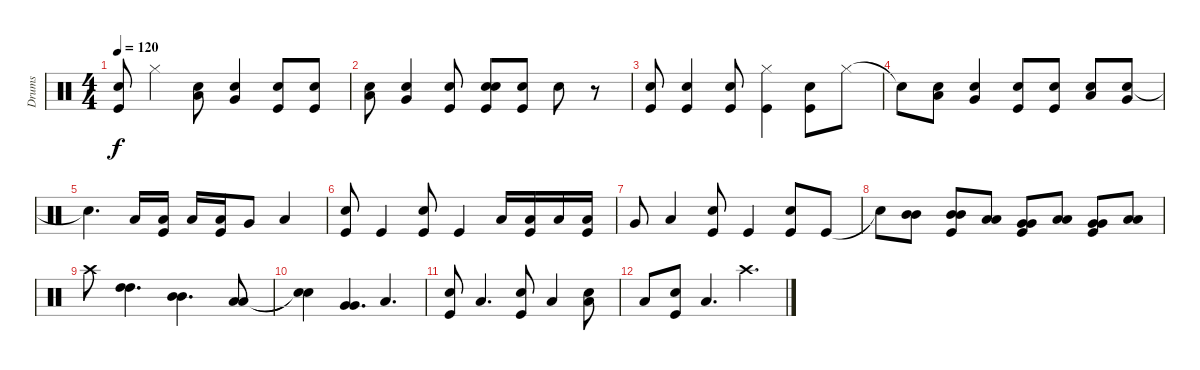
\track ("Drums" "Drums") {instrument percussion}
\staff {score}
\articulation defaults
\ts (4 4)
\tempo 120
\clef neutral
\ks c
("Snare (hit) 2" "Kick (hit)").8{dy f} "Hi-Hat (closed)".4 ("Snare (hit) 2" "Low Floor Tom (hit)").8 ("Snare (hit) 2" "Very Low Tom (hit)").4 ("Snare (hit) 2" "Kick (hit)").8 ("Snare (hit) 2" "Kick (hit)").8 |
("Snare (hit) 2" "Low Floor Tom (hit)").8 ("Snare (hit) 2" "Very Low Tom (hit)").4 ("Snare (hit) 2" "Kick (hit)").8 ("Snare (hit) 2" "Snare (hit) 2" "Kick (hit)").8 ("Snare (hit) 2" "Kick (hit)").8 "Snare (hit) 2".8 r.8 |
("Snare (hit) 2" "Kick (hit)").8 ("Snare (hit) 2" "Kick (hit)").4 ("Snare (hit) 2" "Kick (hit)").8 ("Hi-Hat (closed)" "Kick (hit)").4 ("Snare (hit) 2" "Kick (hit)").8 "Hi-Hat (closed)".8 |
"Snare (hit)"{t}.8 ("Snare (hit) 2" "Low Floor Tom (hit)").8 ("Snare (hit) 2" "Very Low Tom (hit)").4 ("Snare (hit) 2" "Kick (hit)").8 ("Snare (hit) 2" "Kick (hit)").8 ("Snare (hit) 2" "Low Floor Tom (hit)").8 ("Snare (hit) 2" "Very Low Tom (hit)").8 |
"Snare (hit)"{t}.4{d} "Low Tom (hit)".16 ("Low Tom (hit)" "Kick (hit)").16 "Low Tom (hit)".16 ("Low Tom (hit)" "Kick (hit)").16 "Very Low Tom (hit)".8 "Low Floor Tom (hit)".4 |
("Snare (hit) 2" "Kick (hit)").8 "Kick (hit)".4 ("Snare (hit) 2" "Kick (hit)").8 "Kick (hit)".4 "Low Tom (hit)".16 ("Low Tom (hit)" "Kick (hit)").16 "Low Tom (hit)".16 ("Low Tom (hit)" "Kick (hit)").16 |
"Very Low Tom (hit)".8 "Low Floor Tom (hit)".4 ("Snare (hit) 2" "Kick (hit)").8 "Kick (hit)".4 ("Snare (hit) 2" "Kick (hit)").8 "Kick (hit)".8 |
"Snare (hit)"{t}.8 ("Mid Tom (hit)" "Mid Tom (hit)").8 ("Mid Tom (hit)" "Mid Tom (hit)" "Kick (hit)").8 ("Low Tom (hit)" "Low Tom (hit)").8 ("Very Low Tom (hit)" "Very Low Tom (hit)" "Kick (hit)").8 ("Low Tom (hit)" "Low Tom (hit)").8 ("Very Low Tom (hit)" "Very Low Tom (hit)" "Kick (hit)").8 ("Low Floor Tom (hit)" "Low Floor Tom (hit)").8 |
"Crash high (hit)".8 ("High Tom (hit)" "High Tom (hit)").4{d} ("Mid Tom (hit)" "Mid Tom (hit)").4{d} ("Low Tom (hit)" "Low Tom (hit)").8 |
("Snare (hit)"{t} "Snare (hit)"{t}).4 ("Very Low Tom (hit)" "Very Low Tom (hit)").4{d} "Low Floor Tom (hit)".4{d} |
("Snare (hit) 2" "Kick (hit)").8 "Low Floor Tom (hit)".4{d} ("Snare (hit) 2" "Kick (hit)").8 "Low Floor Tom (hit)".4 ("Snare (hit) 2" "Low Floor Tom (hit)").8 |
"Low Floor Tom (hit)".8 ("Snare (hit) 2" "Kick (hit)").8 "Low Floor Tom (hit)".4{d} "Crash high (hit)".4{d}
